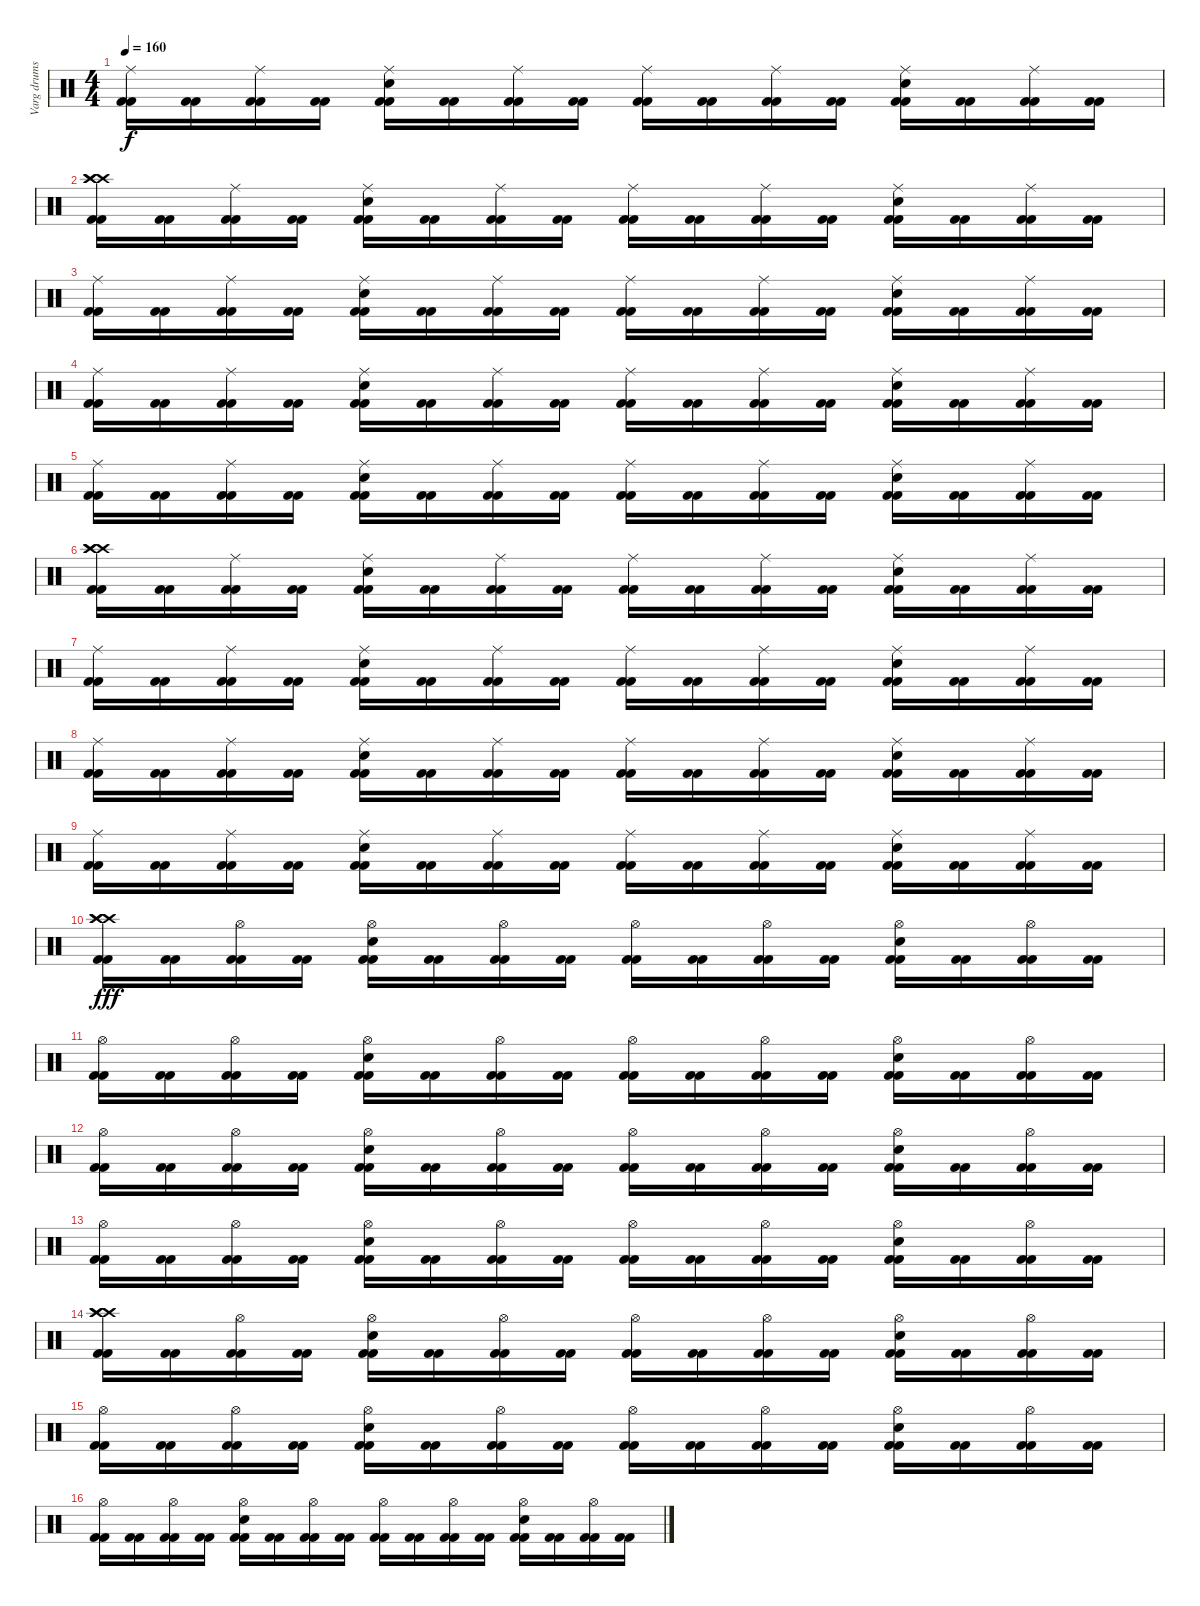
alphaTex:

\track ("Varg drums" "Varg drums") {instrument percussion}
\staff {score}
\articulation defaults
\ts (4 4)
\tempo 160
\clef neutral
\ks c
("Ride (middle)" "Kick (hit) 2" "Kick (hit) 2").16{dy f} ("Kick (hit) 2" "Kick (hit) 2").16 ("Ride (middle)" "Kick (hit) 2" "Kick (hit) 2").16 ("Kick (hit) 2" "Kick (hit) 2").16 ("Ride (middle)" "Electric Snare (hit)" "Kick (hit) 2" "Kick (hit) 2").16 ("Kick (hit) 2" "Kick (hit) 2").16 ("Ride (middle)" "Kick (hit) 2" "Kick (hit) 2").16 ("Kick (hit) 2" "Kick (hit) 2").16 ("Ride (middle)" "Kick (hit) 2" "Kick (hit) 2").16 ("Kick (hit) 2" "Kick (hit) 2").16 ("Ride (middle)" "Kick (hit) 2" "Kick (hit) 2").16 ("Kick (hit) 2" "Kick (hit) 2").16 ("Ride (middle)" "Electric Snare (hit)" "Kick (hit) 2" "Kick (hit) 2").16 ("Kick (hit) 2" "Kick (hit) 2").16 ("Ride (middle)" "Kick (hit) 2" "Kick (hit) 2").16 ("Kick (hit) 2" "Kick (hit) 2").16 |
("Crash high (hit)" "Crash high (hit)" "Crash high (hit)" "Kick (hit) 2" "Kick (hit) 2").16 ("Kick (hit) 2" "Kick (hit) 2").16 ("Ride (middle)" "Kick (hit) 2" "Kick (hit) 2").16 ("Kick (hit) 2" "Kick (hit) 2").16 ("Ride (middle)" "Electric Snare (hit)" "Kick (hit) 2" "Kick (hit) 2").16 ("Kick (hit) 2" "Kick (hit) 2").16 ("Ride (middle)" "Kick (hit) 2" "Kick (hit) 2").16 ("Kick (hit) 2" "Kick (hit) 2").16 ("Ride (middle)" "Kick (hit) 2" "Kick (hit) 2").16 ("Kick (hit) 2" "Kick (hit) 2").16 ("Ride (middle)" "Kick (hit) 2" "Kick (hit) 2").16 ("Kick (hit) 2" "Kick (hit) 2").16 ("Ride (middle)" "Electric Snare (hit)" "Kick (hit) 2" "Kick (hit) 2").16 ("Kick (hit) 2" "Kick (hit) 2").16 ("Ride (middle)" "Kick (hit) 2" "Kick (hit) 2").16 ("Kick (hit) 2" "Kick (hit) 2").16 |
("Ride (middle)" "Kick (hit) 2" "Kick (hit) 2").16 ("Kick (hit) 2" "Kick (hit) 2").16 ("Ride (middle)" "Kick (hit) 2" "Kick (hit) 2").16 ("Kick (hit) 2" "Kick (hit) 2").16 ("Ride (middle)" "Electric Snare (hit)" "Kick (hit) 2" "Kick (hit) 2").16 ("Kick (hit) 2" "Kick (hit) 2").16 ("Ride (middle)" "Kick (hit) 2" "Kick (hit) 2").16 ("Kick (hit) 2" "Kick (hit) 2").16 ("Ride (middle)" "Kick (hit) 2" "Kick (hit) 2").16 ("Kick (hit) 2" "Kick (hit) 2").16 ("Ride (middle)" "Kick (hit) 2" "Kick (hit) 2").16 ("Kick (hit) 2" "Kick (hit) 2").16 ("Ride (middle)" "Electric Snare (hit)" "Kick (hit) 2" "Kick (hit) 2").16 ("Kick (hit) 2" "Kick (hit) 2").16 ("Ride (middle)" "Kick (hit) 2" "Kick (hit) 2").16 ("Kick (hit) 2" "Kick (hit) 2").16 |
("Ride (middle)" "Kick (hit) 2" "Kick (hit) 2").16 ("Kick (hit) 2" "Kick (hit) 2").16 ("Ride (middle)" "Kick (hit) 2" "Kick (hit) 2").16 ("Kick (hit) 2" "Kick (hit) 2").16 ("Ride (middle)" "Electric Snare (hit)" "Kick (hit) 2" "Kick (hit) 2").16 ("Kick (hit) 2" "Kick (hit) 2").16 ("Ride (middle)" "Kick (hit) 2" "Kick (hit) 2").16 ("Kick (hit) 2" "Kick (hit) 2").16 ("Ride (middle)" "Kick (hit) 2" "Kick (hit) 2").16 ("Kick (hit) 2" "Kick (hit) 2").16 ("Ride (middle)" "Kick (hit) 2" "Kick (hit) 2").16 ("Kick (hit) 2" "Kick (hit) 2").16 ("Ride (middle)" "Electric Snare (hit)" "Kick (hit) 2" "Kick (hit) 2").16 ("Kick (hit) 2" "Kick (hit) 2").16 ("Ride (middle)" "Kick (hit) 2" "Kick (hit) 2").16 ("Kick (hit) 2" "Kick (hit) 2").16 |
("Ride (middle)" "Kick (hit) 2" "Kick (hit) 2").16 ("Kick (hit) 2" "Kick (hit) 2").16 ("Ride (middle)" "Kick (hit) 2" "Kick (hit) 2").16 ("Kick (hit) 2" "Kick (hit) 2").16 ("Ride (middle)" "Electric Snare (hit)" "Kick (hit) 2" "Kick (hit) 2").16 ("Kick (hit) 2" "Kick (hit) 2").16 ("Ride (middle)" "Kick (hit) 2" "Kick (hit) 2").16 ("Kick (hit) 2" "Kick (hit) 2").16 ("Ride (middle)" "Kick (hit) 2" "Kick (hit) 2").16 ("Kick (hit) 2" "Kick (hit) 2").16 ("Ride (middle)" "Kick (hit) 2" "Kick (hit) 2").16 ("Kick (hit) 2" "Kick (hit) 2").16 ("Ride (middle)" "Electric Snare (hit)" "Kick (hit) 2" "Kick (hit) 2").16 ("Kick (hit) 2" "Kick (hit) 2").16 ("Ride (middle)" "Kick (hit) 2" "Kick (hit) 2").16 ("Kick (hit) 2" "Kick (hit) 2").16 |
("Crash high (hit)" "Crash high (hit)" "Crash high (hit)" "Kick (hit) 2" "Kick (hit) 2").16 ("Kick (hit) 2" "Kick (hit) 2").16 ("Ride (middle)" "Kick (hit) 2" "Kick (hit) 2").16 ("Kick (hit) 2" "Kick (hit) 2").16 ("Ride (middle)" "Electric Snare (hit)" "Kick (hit) 2" "Kick (hit) 2").16 ("Kick (hit) 2" "Kick (hit) 2").16 ("Ride (middle)" "Kick (hit) 2" "Kick (hit) 2").16 ("Kick (hit) 2" "Kick (hit) 2").16 ("Ride (middle)" "Kick (hit) 2" "Kick (hit) 2").16 ("Kick (hit) 2" "Kick (hit) 2").16 ("Ride (middle)" "Kick (hit) 2" "Kick (hit) 2").16 ("Kick (hit) 2" "Kick (hit) 2").16 ("Ride (middle)" "Electric Snare (hit)" "Kick (hit) 2" "Kick (hit) 2").16 ("Kick (hit) 2" "Kick (hit) 2").16 ("Ride (middle)" "Kick (hit) 2" "Kick (hit) 2").16 ("Kick (hit) 2" "Kick (hit) 2").16 |
("Ride (middle)" "Kick (hit) 2" "Kick (hit) 2").16 ("Kick (hit) 2" "Kick (hit) 2").16 ("Ride (middle)" "Kick (hit) 2" "Kick (hit) 2").16 ("Kick (hit) 2" "Kick (hit) 2").16 ("Ride (middle)" "Electric Snare (hit)" "Kick (hit) 2" "Kick (hit) 2").16 ("Kick (hit) 2" "Kick (hit) 2").16 ("Ride (middle)" "Kick (hit) 2" "Kick (hit) 2").16 ("Kick (hit) 2" "Kick (hit) 2").16 ("Ride (middle)" "Kick (hit) 2" "Kick (hit) 2").16 ("Kick (hit) 2" "Kick (hit) 2").16 ("Ride (middle)" "Kick (hit) 2" "Kick (hit) 2").16 ("Kick (hit) 2" "Kick (hit) 2").16 ("Ride (middle)" "Electric Snare (hit)" "Kick (hit) 2" "Kick (hit) 2").16 ("Kick (hit) 2" "Kick (hit) 2").16 ("Ride (middle)" "Kick (hit) 2" "Kick (hit) 2").16 ("Kick (hit) 2" "Kick (hit) 2").16 |
("Ride (middle)" "Kick (hit) 2" "Kick (hit) 2").16 ("Kick (hit) 2" "Kick (hit) 2").16 ("Ride (middle)" "Kick (hit) 2" "Kick (hit) 2").16 ("Kick (hit) 2" "Kick (hit) 2").16 ("Ride (middle)" "Electric Snare (hit)" "Kick (hit) 2" "Kick (hit) 2").16 ("Kick (hit) 2" "Kick (hit) 2").16 ("Ride (middle)" "Kick (hit) 2" "Kick (hit) 2").16 ("Kick (hit) 2" "Kick (hit) 2").16 ("Ride (middle)" "Kick (hit) 2" "Kick (hit) 2").16 ("Kick (hit) 2" "Kick (hit) 2").16 ("Ride (middle)" "Kick (hit) 2" "Kick (hit) 2").16 ("Kick (hit) 2" "Kick (hit) 2").16 ("Ride (middle)" "Electric Snare (hit)" "Kick (hit) 2" "Kick (hit) 2").16 ("Kick (hit) 2" "Kick (hit) 2").16 ("Ride (middle)" "Kick (hit) 2" "Kick (hit) 2").16 ("Kick (hit) 2" "Kick (hit) 2").16 |
("Ride (middle)" "Kick (hit) 2" "Kick (hit) 2").16 ("Kick (hit) 2" "Kick (hit) 2").16 ("Ride (middle)" "Kick (hit) 2" "Kick (hit) 2").16 ("Kick (hit) 2" "Kick (hit) 2").16 ("Ride (middle)" "Electric Snare (hit)" "Kick (hit) 2" "Kick (hit) 2").16 ("Kick (hit) 2" "Kick (hit) 2").16 ("Ride (middle)" "Kick (hit) 2" "Kick (hit) 2").16 ("Kick (hit) 2" "Kick (hit) 2").16 ("Ride (middle)" "Kick (hit) 2" "Kick (hit) 2").16 ("Kick (hit) 2" "Kick (hit) 2").16 ("Ride (middle)" "Kick (hit) 2" "Kick (hit) 2").16 ("Kick (hit) 2" "Kick (hit) 2").16 ("Ride (middle)" "Electric Snare (hit)" "Kick (hit) 2" "Kick (hit) 2").16 ("Kick (hit) 2" "Kick (hit) 2").16 ("Ride (middle)" "Kick (hit) 2" "Kick (hit) 2").16 ("Kick (hit) 2" "Kick (hit) 2").16 |
("Crash high (hit)" "Crash high (hit)" "Crash high (hit)" "Kick (hit) 2" "Kick (hit) 2").16{dy fff} ("Kick (hit) 2" "Kick (hit) 2").16 ("Hi-Hat (open)" "Kick (hit) 2" "Kick (hit) 2").16 ("Kick (hit) 2" "Kick (hit) 2").16 ("Hi-Hat (open)" "Electric Snare (hit)" "Kick (hit) 2" "Kick (hit) 2").16 ("Kick (hit) 2" "Kick (hit) 2").16 ("Hi-Hat (open)" "Kick (hit) 2" "Kick (hit) 2").16 ("Kick (hit) 2" "Kick (hit) 2").16 ("Hi-Hat (open)" "Kick (hit) 2" "Kick (hit) 2").16 ("Kick (hit) 2" "Kick (hit) 2").16 ("Hi-Hat (open)" "Kick (hit) 2" "Kick (hit) 2").16 ("Kick (hit) 2" "Kick (hit) 2").16 ("Hi-Hat (open)" "Electric Snare (hit)" "Kick (hit) 2" "Kick (hit) 2").16 ("Kick (hit) 2" "Kick (hit) 2").16 ("Hi-Hat (open)" "Kick (hit) 2" "Kick (hit) 2").16 ("Kick (hit) 2" "Kick (hit) 2").16 |
("Hi-Hat (open)" "Kick (hit) 2" "Kick (hit) 2").16 ("Kick (hit) 2" "Kick (hit) 2").16 ("Hi-Hat (open)" "Kick (hit) 2" "Kick (hit) 2").16 ("Kick (hit) 2" "Kick (hit) 2").16 ("Hi-Hat (open)" "Electric Snare (hit)" "Kick (hit) 2" "Kick (hit) 2").16 ("Kick (hit) 2" "Kick (hit) 2").16 ("Hi-Hat (open)" "Kick (hit) 2" "Kick (hit) 2").16 ("Kick (hit) 2" "Kick (hit) 2").16 ("Hi-Hat (open)" "Kick (hit) 2" "Kick (hit) 2").16 ("Kick (hit) 2" "Kick (hit) 2").16 ("Hi-Hat (open)" "Kick (hit) 2" "Kick (hit) 2").16 ("Kick (hit) 2" "Kick (hit) 2").16 ("Hi-Hat (open)" "Electric Snare (hit)" "Kick (hit) 2" "Kick (hit) 2").16 ("Kick (hit) 2" "Kick (hit) 2").16 ("Hi-Hat (open)" "Kick (hit) 2" "Kick (hit) 2").16 ("Kick (hit) 2" "Kick (hit) 2").16 |
("Hi-Hat (open)" "Kick (hit) 2" "Kick (hit) 2").16 ("Kick (hit) 2" "Kick (hit) 2").16 ("Hi-Hat (open)" "Kick (hit) 2" "Kick (hit) 2").16 ("Kick (hit) 2" "Kick (hit) 2").16 ("Hi-Hat (open)" "Electric Snare (hit)" "Kick (hit) 2" "Kick (hit) 2").16 ("Kick (hit) 2" "Kick (hit) 2").16 ("Hi-Hat (open)" "Kick (hit) 2" "Kick (hit) 2").16 ("Kick (hit) 2" "Kick (hit) 2").16 ("Hi-Hat (open)" "Kick (hit) 2" "Kick (hit) 2").16 ("Kick (hit) 2" "Kick (hit) 2").16 ("Hi-Hat (open)" "Kick (hit) 2" "Kick (hit) 2").16 ("Kick (hit) 2" "Kick (hit) 2").16 ("Hi-Hat (open)" "Electric Snare (hit)" "Kick (hit) 2" "Kick (hit) 2").16 ("Kick (hit) 2" "Kick (hit) 2").16 ("Hi-Hat (open)" "Kick (hit) 2" "Kick (hit) 2").16 ("Kick (hit) 2" "Kick (hit) 2").16 |
("Hi-Hat (open)" "Kick (hit) 2" "Kick (hit) 2").16 ("Kick (hit) 2" "Kick (hit) 2").16 ("Hi-Hat (open)" "Kick (hit) 2" "Kick (hit) 2").16 ("Kick (hit) 2" "Kick (hit) 2").16 ("Hi-Hat (open)" "Electric Snare (hit)" "Kick (hit) 2" "Kick (hit) 2").16 ("Kick (hit) 2" "Kick (hit) 2").16 ("Hi-Hat (open)" "Kick (hit) 2" "Kick (hit) 2").16 ("Kick (hit) 2" "Kick (hit) 2").16 ("Hi-Hat (open)" "Kick (hit) 2" "Kick (hit) 2").16 ("Kick (hit) 2" "Kick (hit) 2").16 ("Hi-Hat (open)" "Kick (hit) 2" "Kick (hit) 2").16 ("Kick (hit) 2" "Kick (hit) 2").16 ("Hi-Hat (open)" "Electric Snare (hit)" "Kick (hit) 2" "Kick (hit) 2").16 ("Kick (hit) 2" "Kick (hit) 2").16 ("Hi-Hat (open)" "Kick (hit) 2" "Kick (hit) 2").16 ("Kick (hit) 2" "Kick (hit) 2").16 |
("Crash high (hit)" "Crash high (hit)" "Crash high (hit)" "Kick (hit) 2" "Kick (hit) 2").16 ("Kick (hit) 2" "Kick (hit) 2").16 ("Hi-Hat (open)" "Kick (hit) 2" "Kick (hit) 2").16 ("Kick (hit) 2" "Kick (hit) 2").16 ("Hi-Hat (open)" "Electric Snare (hit)" "Kick (hit) 2" "Kick (hit) 2").16 ("Kick (hit) 2" "Kick (hit) 2").16 ("Hi-Hat (open)" "Kick (hit) 2" "Kick (hit) 2").16 ("Kick (hit) 2" "Kick (hit) 2").16 ("Hi-Hat (open)" "Kick (hit) 2" "Kick (hit) 2").16 ("Kick (hit) 2" "Kick (hit) 2").16 ("Hi-Hat (open)" "Kick (hit) 2" "Kick (hit) 2").16 ("Kick (hit) 2" "Kick (hit) 2").16 ("Hi-Hat (open)" "Electric Snare (hit)" "Kick (hit) 2" "Kick (hit) 2").16 ("Kick (hit) 2" "Kick (hit) 2").16 ("Hi-Hat (open)" "Kick (hit) 2" "Kick (hit) 2").16 ("Kick (hit) 2" "Kick (hit) 2").16 |
("Hi-Hat (open)" "Kick (hit) 2" "Kick (hit) 2").16 ("Kick (hit) 2" "Kick (hit) 2").16 ("Hi-Hat (open)" "Kick (hit) 2" "Kick (hit) 2").16 ("Kick (hit) 2" "Kick (hit) 2").16 ("Hi-Hat (open)" "Electric Snare (hit)" "Kick (hit) 2" "Kick (hit) 2").16 ("Kick (hit) 2" "Kick (hit) 2").16 ("Hi-Hat (open)" "Kick (hit) 2" "Kick (hit) 2").16 ("Kick (hit) 2" "Kick (hit) 2").16 ("Hi-Hat (open)" "Kick (hit) 2" "Kick (hit) 2").16 ("Kick (hit) 2" "Kick (hit) 2").16 ("Hi-Hat (open)" "Kick (hit) 2" "Kick (hit) 2").16 ("Kick (hit) 2" "Kick (hit) 2").16 ("Hi-Hat (open)" "Electric Snare (hit)" "Kick (hit) 2" "Kick (hit) 2").16 ("Kick (hit) 2" "Kick (hit) 2").16 ("Hi-Hat (open)" "Kick (hit) 2" "Kick (hit) 2").16 ("Kick (hit) 2" "Kick (hit) 2").16 |
("Hi-Hat (open)" "Kick (hit) 2" "Kick (hit) 2").16 ("Kick (hit) 2" "Kick (hit) 2").16 ("Hi-Hat (open)" "Kick (hit) 2" "Kick (hit) 2").16 ("Kick (hit) 2" "Kick (hit) 2").16 ("Hi-Hat (open)" "Electric Snare (hit)" "Kick (hit) 2" "Kick (hit) 2").16 ("Kick (hit) 2" "Kick (hit) 2").16 ("Hi-Hat (open)" "Kick (hit) 2" "Kick (hit) 2").16 ("Kick (hit) 2" "Kick (hit) 2").16 ("Hi-Hat (open)" "Kick (hit) 2" "Kick (hit) 2").16 ("Kick (hit) 2" "Kick (hit) 2").16 ("Hi-Hat (open)" "Kick (hit) 2" "Kick (hit) 2").16 ("Kick (hit) 2" "Kick (hit) 2").16 ("Hi-Hat (open)" "Electric Snare (hit)" "Kick (hit) 2" "Kick (hit) 2").16 ("Kick (hit) 2" "Kick (hit) 2").16 ("Hi-Hat (open)" "Kick (hit) 2" "Kick (hit) 2").16 ("Kick (hit) 2" "Kick (hit) 2").16
